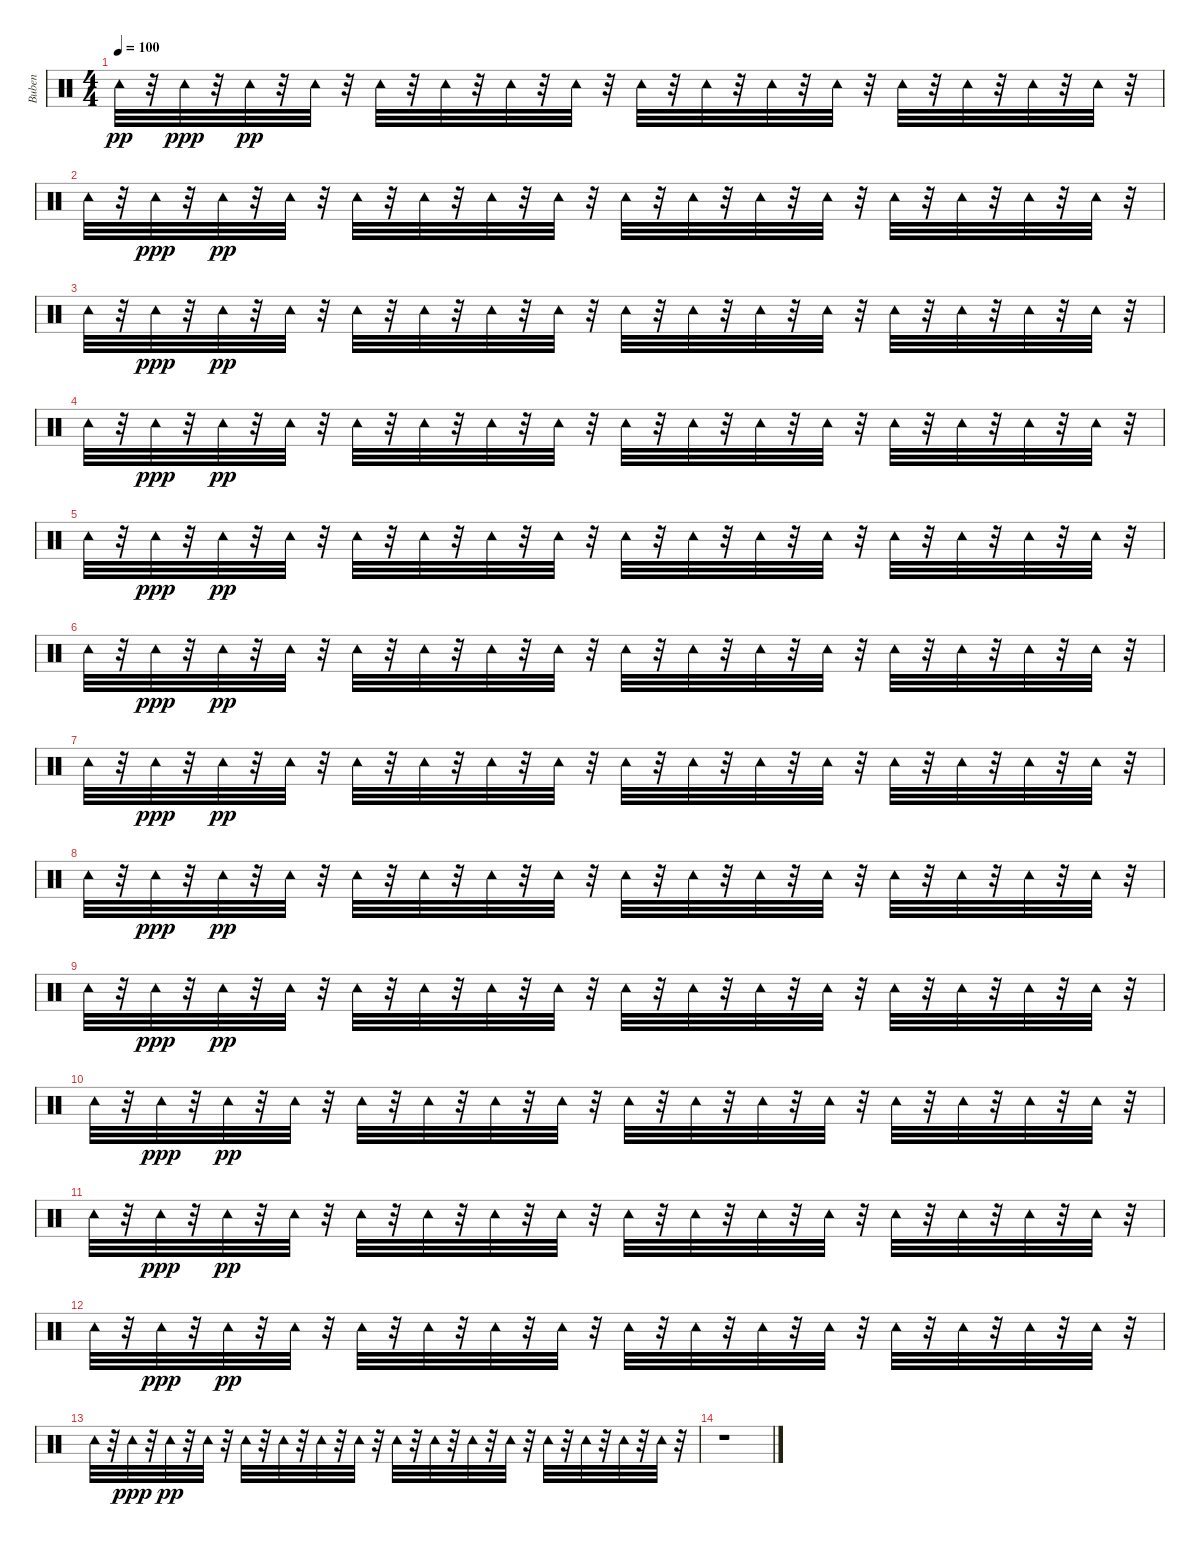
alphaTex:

\track ("Buben" "Buben") {instrument percussion}
\staff {score}
\articulation defaults
\ts (4 4)
\tempo 100
\clef neutral
\ks c "Tambourine (hit)".32{dy pp}
r.32 "Tambourine (hit)".32{dy ppp} r.32 "Tambourine (hit)".32{dy pp} r.32 "Tambourine (hit)".32 r.32 "Tambourine (hit)".32 r.32 "Tambourine (hit)".32 r.32 "Tambourine (hit)".32 r.32 "Tambourine (hit)".32 r.32 "Tambourine (hit)".32 r.32 "Tambourine (hit)".32 r.32 "Tambourine (hit)".32 r.32 "Tambourine (hit)".32 r.32 "Tambourine (hit)".32 r.32 "Tambourine (hit)".32 r.32 "Tambourine (hit)".32 r.32 "Tambourine (hit)".32 r.32 |
"Tambourine (hit)".32 r.32 "Tambourine (hit)".32{dy ppp} r.32 "Tambourine (hit)".32{dy pp} r.32 "Tambourine (hit)".32 r.32 "Tambourine (hit)".32 r.32 "Tambourine (hit)".32 r.32 "Tambourine (hit)".32 r.32 "Tambourine (hit)".32 r.32 "Tambourine (hit)".32 r.32 "Tambourine (hit)".32 r.32 "Tambourine (hit)".32 r.32 "Tambourine (hit)".32 r.32 "Tambourine (hit)".32 r.32 "Tambourine (hit)".32 r.32 "Tambourine (hit)".32 r.32 "Tambourine (hit)".32 r.32 |
"Tambourine (hit)".32 r.32 "Tambourine (hit)".32{dy ppp} r.32 "Tambourine (hit)".32{dy pp} r.32 "Tambourine (hit)".32 r.32 "Tambourine (hit)".32 r.32 "Tambourine (hit)".32 r.32 "Tambourine (hit)".32 r.32 "Tambourine (hit)".32 r.32 "Tambourine (hit)".32 r.32 "Tambourine (hit)".32 r.32 "Tambourine (hit)".32 r.32 "Tambourine (hit)".32 r.32 "Tambourine (hit)".32 r.32 "Tambourine (hit)".32 r.32 "Tambourine (hit)".32 r.32 "Tambourine (hit)".32 r.32 |
"Tambourine (hit)".32 r.32 "Tambourine (hit)".32{dy ppp} r.32 "Tambourine (hit)".32{dy pp} r.32 "Tambourine (hit)".32 r.32 "Tambourine (hit)".32 r.32 "Tambourine (hit)".32 r.32 "Tambourine (hit)".32 r.32 "Tambourine (hit)".32 r.32 "Tambourine (hit)".32 r.32 "Tambourine (hit)".32 r.32 "Tambourine (hit)".32 r.32 "Tambourine (hit)".32 r.32 "Tambourine (hit)".32 r.32 "Tambourine (hit)".32 r.32 "Tambourine (hit)".32 r.32 "Tambourine (hit)".32 r.32 |
"Tambourine (hit)".32 r.32 "Tambourine (hit)".32{dy ppp} r.32 "Tambourine (hit)".32{dy pp} r.32 "Tambourine (hit)".32 r.32 "Tambourine (hit)".32 r.32 "Tambourine (hit)".32 r.32 "Tambourine (hit)".32 r.32 "Tambourine (hit)".32 r.32 "Tambourine (hit)".32 r.32 "Tambourine (hit)".32 r.32 "Tambourine (hit)".32 r.32 "Tambourine (hit)".32 r.32 "Tambourine (hit)".32 r.32 "Tambourine (hit)".32 r.32 "Tambourine (hit)".32 r.32 "Tambourine (hit)".32 r.32 |
"Tambourine (hit)".32 r.32 "Tambourine (hit)".32{dy ppp} r.32 "Tambourine (hit)".32{dy pp} r.32 "Tambourine (hit)".32 r.32 "Tambourine (hit)".32 r.32 "Tambourine (hit)".32 r.32 "Tambourine (hit)".32 r.32 "Tambourine (hit)".32 r.32 "Tambourine (hit)".32 r.32 "Tambourine (hit)".32 r.32 "Tambourine (hit)".32 r.32 "Tambourine (hit)".32 r.32 "Tambourine (hit)".32 r.32 "Tambourine (hit)".32 r.32 "Tambourine (hit)".32 r.32 "Tambourine (hit)".32 r.32 |
"Tambourine (hit)".32 r.32 "Tambourine (hit)".32{dy ppp} r.32 "Tambourine (hit)".32{dy pp} r.32 "Tambourine (hit)".32 r.32 "Tambourine (hit)".32 r.32 "Tambourine (hit)".32 r.32 "Tambourine (hit)".32 r.32 "Tambourine (hit)".32 r.32 "Tambourine (hit)".32 r.32 "Tambourine (hit)".32 r.32 "Tambourine (hit)".32 r.32 "Tambourine (hit)".32 r.32 "Tambourine (hit)".32 r.32 "Tambourine (hit)".32 r.32 "Tambourine (hit)".32 r.32 "Tambourine (hit)".32 r.32 |
"Tambourine (hit)".32 r.32 "Tambourine (hit)".32{dy ppp} r.32 "Tambourine (hit)".32{dy pp} r.32 "Tambourine (hit)".32 r.32 "Tambourine (hit)".32 r.32 "Tambourine (hit)".32 r.32 "Tambourine (hit)".32 r.32 "Tambourine (hit)".32 r.32 "Tambourine (hit)".32 r.32 "Tambourine (hit)".32 r.32 "Tambourine (hit)".32 r.32 "Tambourine (hit)".32 r.32 "Tambourine (hit)".32 r.32 "Tambourine (hit)".32 r.32 "Tambourine (hit)".32 r.32 "Tambourine (hit)".32 r.32 |
"Tambourine (hit)".32 r.32 "Tambourine (hit)".32{dy ppp} r.32 "Tambourine (hit)".32{dy pp} r.32 "Tambourine (hit)".32 r.32 "Tambourine (hit)".32 r.32 "Tambourine (hit)".32 r.32 "Tambourine (hit)".32 r.32 "Tambourine (hit)".32 r.32 "Tambourine (hit)".32 r.32 "Tambourine (hit)".32 r.32 "Tambourine (hit)".32 r.32 "Tambourine (hit)".32 r.32 "Tambourine (hit)".32 r.32 "Tambourine (hit)".32 r.32 "Tambourine (hit)".32 r.32 "Tambourine (hit)".32 r.32 |
"Tambourine (hit)".32 r.32 "Tambourine (hit)".32{dy ppp} r.32 "Tambourine (hit)".32{dy pp} r.32 "Tambourine (hit)".32 r.32 "Tambourine (hit)".32 r.32 "Tambourine (hit)".32 r.32 "Tambourine (hit)".32 r.32 "Tambourine (hit)".32 r.32 "Tambourine (hit)".32 r.32 "Tambourine (hit)".32 r.32 "Tambourine (hit)".32 r.32 "Tambourine (hit)".32 r.32 "Tambourine (hit)".32 r.32 "Tambourine (hit)".32 r.32 "Tambourine (hit)".32 r.32 "Tambourine (hit)".32 r.32 |
"Tambourine (hit)".32 r.32 "Tambourine (hit)".32{dy ppp} r.32 "Tambourine (hit)".32{dy pp} r.32 "Tambourine (hit)".32 r.32 "Tambourine (hit)".32 r.32 "Tambourine (hit)".32 r.32 "Tambourine (hit)".32 r.32 "Tambourine (hit)".32 r.32 "Tambourine (hit)".32 r.32 "Tambourine (hit)".32 r.32 "Tambourine (hit)".32 r.32 "Tambourine (hit)".32 r.32 "Tambourine (hit)".32 r.32 "Tambourine (hit)".32 r.32 "Tambourine (hit)".32 r.32 "Tambourine (hit)".32 r.32 |
"Tambourine (hit)".32 r.32 "Tambourine (hit)".32{dy ppp} r.32 "Tambourine (hit)".32{dy pp} r.32 "Tambourine (hit)".32 r.32 "Tambourine (hit)".32 r.32 "Tambourine (hit)".32 r.32 "Tambourine (hit)".32 r.32 "Tambourine (hit)".32 r.32 "Tambourine (hit)".32 r.32 "Tambourine (hit)".32 r.32 "Tambourine (hit)".32 r.32 "Tambourine (hit)".32 r.32 "Tambourine (hit)".32 r.32 "Tambourine (hit)".32 r.32 "Tambourine (hit)".32 r.32 "Tambourine (hit)".32 r.32 |
"Tambourine (hit)".32 r.32 "Tambourine (hit)".32{dy ppp} r.32 "Tambourine (hit)".32{dy pp} r.32 "Tambourine (hit)".32 r.32 "Tambourine (hit)".32 r.32 "Tambourine (hit)".32 r.32 "Tambourine (hit)".32 r.32 "Tambourine (hit)".32 r.32 "Tambourine (hit)".32 r.32 "Tambourine (hit)".32 r.32 "Tambourine (hit)".32 r.32 "Tambourine (hit)".32 r.32 "Tambourine (hit)".32 r.32 "Tambourine (hit)".32 r.32 "Tambourine (hit)".32 r.32 "Tambourine (hit)".32 r.32 |
r.1
